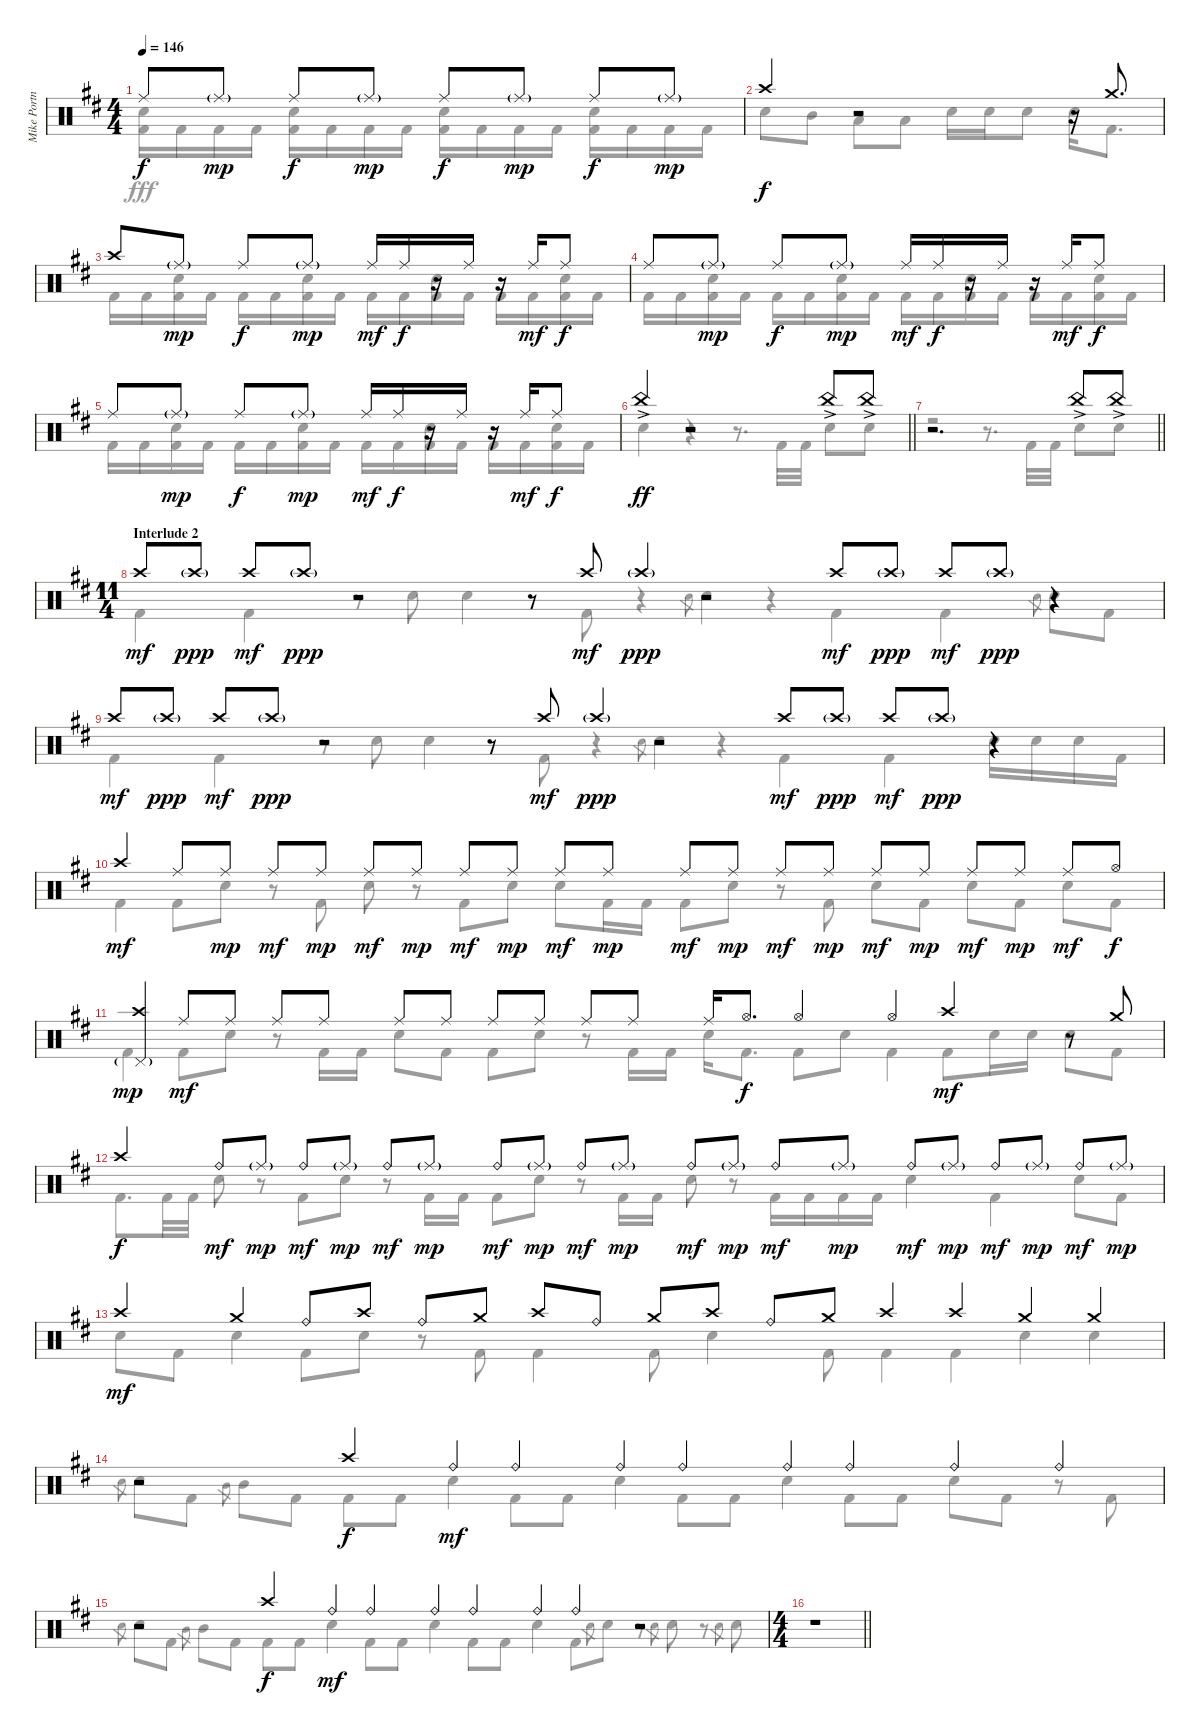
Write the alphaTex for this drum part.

\track ("Mike Portnoy Drums" "Mike Portn") {instrument percussion}
\staff {score}
\articulation defaults
\voice
\ts (4 4)
\tempo 146
\clef neutral
\ks bminor "Ride (middle)".8{dy f} "Ride (middle)"{g}.8{dy mp} "Ride (middle)".8{dy f} "Ride (middle)"{g}.8{dy mp} "Ride (middle)".8{dy f} "Ride (middle)"{g}.8{dy mp} "Ride (middle)".8{dy f} "Ride (middle)"{g}.8{dy mp}
|
"Crash high (hit)".4{dy f} r.2 r.16 "Crash medium (hit)".8{d} |
"Crash high (hit)".8 "Ride (middle)"{g}.8{dy mp} "Ride (middle)".8{dy f} "Ride (middle)"{g}.8{dy mp} "Ride (middle)".16{dy mf} "Ride (middle)".16{dy f} r.16 "Ride (middle)".16 r.16 "Ride (middle)".16{dy mf} "Ride (middle)".8{dy f} |
"Ride (middle)".8 "Ride (middle)"{g}.8{dy mp} "Ride (middle)".8{dy f} "Ride (middle)"{g}.8{dy mp} "Ride (middle)".16{dy mf} "Ride (middle)".16{dy f} r.16 "Ride (middle)".16 r.16 "Ride (middle)".16{dy mf} "Ride (middle)".8{dy f} |
"Ride (middle)".8 "Ride (middle)"{g}.8{dy mp} "Ride (middle)".8{dy f} "Ride (middle)"{g}.8{dy mp} "Ride (middle)".16{dy mf} "Ride (middle)".16{dy f} r.16 "Ride (middle)".16 r.16 "Ride (middle)".16{dy mf} "Ride (middle)".8{dy f} |
\barLineRight lightlight "China (hit)"{ac}.4{dy ff}
r.2 "China (hit)"{ac}.8 "China (hit)"{ac}.8 |
\barLineRight lightlight
r.2{d} "China (hit)"{ac}.8 "China (hit)"{ac}.8 |
\ts (11 4)
\section ("" "Interlude 2")
"Crash high (hit)".8{dy mf} "Crash high (hit)"{g}.8{dy ppp} "Crash high (hit)".8{dy mf} "Crash high (hit)"{g}.8{dy ppp} r.2 r.8 "Crash high (hit)".8{dy mf} "Crash high (hit)"{g}.4{dy ppp} r.2 "Crash high (hit)".8{dy mf} "Crash high (hit)"{g}.8{dy ppp} "Crash high (hit)".8{dy mf} "Crash high (hit)"{g}.8{dy ppp} r.4 |
"Crash high (hit)".8{dy mf} "Crash high (hit)"{g}.8{dy ppp} "Crash high (hit)".8{dy mf} "Crash high (hit)"{g}.8{dy ppp} r.2 r.8 "Crash high (hit)".8{dy mf} "Crash high (hit)"{g}.4{dy ppp} r.2 "Crash high (hit)".8{dy mf} "Crash high (hit)"{g}.8{dy ppp} "Crash high (hit)".8{dy mf} "Crash high (hit)"{g}.8{dy ppp} r.4 |
"Crash high (hit)".4{dy mf} "Ride (middle)".8 "Ride (middle)".8{dy mp} "Ride (middle)".8{dy mf} "Ride (middle)".8{dy mp} "Ride (middle)".8{dy mf} "Ride (middle)".8{dy mp} "Ride (middle)".8{dy mf} "Ride (middle)".8{dy mp} "Ride (middle)".8{dy mf} "Ride (middle)".8{dy mp} "Ride (middle)".8{dy mf} "Ride (middle)".8{dy mp} "Ride (middle)".8{dy mf} "Ride (middle)".8{dy mp} "Ride (middle)".8{dy mf} "Ride (middle)".8{dy mp} "Ride (middle)".8{dy mf} "Ride (middle)".8{dy mp} "Ride (middle)".8{dy mf} "Hi-Hat (open)".8{dy f} |
("Crash high (hit)" "Pedal Hi-Hat (hit)"{g}).4{dy mp} "Ride (middle)".8{dy mf} "Ride (middle)".8 "Ride (middle)".8 "Ride (middle)".8 "Ride (middle)".8 "Ride (middle)".8 "Ride (middle)".8 "Ride (middle)".8 "Ride (middle)".8 "Ride (middle)".8 "Ride (middle)".16 "Hi-Hat (open)".8{d dy f} "Hi-Hat (open)".4 "Hi-Hat (open)".4 "Crash high (hit)".4{dy mf} r.8 "Crash medium (hit)".8 |
"Crash high (hit)".4{dy f} "Ride (bell)".8{dy mf} "Ride (middle)"{g}.8{dy mp} "Ride (bell)".8{dy mf} "Ride (middle)"{g}.8{dy mp} "Ride (bell)".8{dy mf} "Ride (middle)"{g}.8{dy mp} "Ride (bell)".8{dy mf} "Ride (middle)"{g}.8{dy mp} "Ride (bell)".8{dy mf} "Ride (middle)"{g}.8{dy mp} "Ride (bell)".8{dy mf} "Ride (middle)"{g}.8{dy mp} "Ride (bell)".8{dy mf} "Ride (middle)"{g}.8{dy mp} "Ride (bell)".8{dy mf} "Ride (middle)"{g}.8{dy mp} "Ride (bell)".8{dy mf} "Ride (middle)"{g}.8{dy mp} "Ride (bell)".8{dy mf} "Ride (middle)"{g}.8{dy mp} |
"Crash high (hit)".4{dy mf} "Crash medium (hit)".4 "Ride (bell)".8 "Crash high (hit)".8 "Ride (bell)".8 "Crash medium (hit)".8 "Crash high (hit)".8 "Ride (bell)".8 "Crash medium (hit)".8 "Crash high (hit)".8 "Ride (bell)".8 "Crash medium (hit)".8 "Crash high (hit)".4 "Crash high (hit)".4 "Crash medium (hit)".4 "Crash medium (hit)".4 |
r.2 "Crash high (hit)".4{dy f} "Ride (bell)".4{dy mf} "Ride (bell)".4 "Ride (bell)".4 "Ride (bell)".4 "Ride (bell)".4 "Ride (bell)".4 "Ride (bell)".4 "Ride (bell)".4 |
r.2 "Crash high (hit)".4{dy f} "Ride (bell)".4{dy mf} "Ride (bell)".4 "Ride (bell)".4 "Ride (bell)".4 "Ride (bell)".4 "Ride (bell)".4 r.2 |
\ts (4 4)
\barLineRight lightlight
r.1
\voice
\clef neutral
\ottava regular
\simile none
\ks bminor
("Snare (hit) 2" "Kick (hit) 2").16{dy fff} "Kick (hit) 2".16 "Kick (hit) 2".16 "Kick (hit) 2".16 ("Snare (hit) 2" "Kick (hit) 2").16 "Kick (hit) 2".16 "Kick (hit) 2".16 "Kick (hit) 2".16 ("Snare (hit) 2" "Kick (hit) 2").16 "Kick (hit) 2".16 "Kick (hit) 2".16 "Kick (hit) 2".16 ("Snare (hit) 2" "Kick (hit) 2").16 "Kick (hit) 2".16 "Kick (hit) 2".16 "Kick (hit) 2".16 |
"Snare (hit) 2".8 "Mid Tom (hit)".8 "Low Tom (hit)".8 "Low Tom (hit)".8 "Snare (hit) 2".16 "Snare (hit) 2".16 "Snare (hit) 2".8 "Snare (hit) 2".16 "Kick (hit) 2".8{d} |
"Kick (hit) 2".16 "Kick (hit) 2".16 ("Snare (hit) 2" "Kick (hit) 2").16 "Kick (hit) 2".16 "Kick (hit) 2".16 "Kick (hit) 2".16 ("Snare (hit) 2" "Kick (hit) 2").16 "Kick (hit) 2".16 "Kick (hit) 2".16 "Kick (hit) 2".16 ("Snare (hit) 2" "Kick (hit) 2").16 "Kick (hit) 2".16 "Kick (hit) 2".16 "Kick (hit) 2".16 ("Snare (hit) 2" "Kick (hit) 2").16 "Kick (hit) 2".16 |
"Kick (hit) 2".16 "Kick (hit) 2".16 ("Snare (hit) 2" "Kick (hit) 2").16 "Kick (hit) 2".16 "Kick (hit) 2".16 "Kick (hit) 2".16 ("Snare (hit) 2" "Kick (hit) 2").16 "Kick (hit) 2".16 "Kick (hit) 2".16 "Kick (hit) 2".16 ("Snare (hit) 2" "Kick (hit) 2").16 "Kick (hit) 2".16 "Kick (hit) 2".16 "Kick (hit) 2".16 ("Snare (hit) 2" "Kick (hit) 2").16 "Kick (hit) 2".16 |
"Kick (hit) 2".16 "Kick (hit) 2".16 ("Snare (hit) 2" "Kick (hit) 2").16 "Kick (hit) 2".16 "Kick (hit) 2".16 "Kick (hit) 2".16 ("Snare (hit) 2" "Kick (hit) 2").16 "Kick (hit) 2".16 "Kick (hit) 2".16 "Kick (hit) 2".16 ("Snare (hit) 2" "Kick (hit) 2").16 "Kick (hit) 2".16 "Kick (hit) 2".16 "Kick (hit) 2".16 ("Snare (hit) 2" "Kick (hit) 2").16 "Kick (hit) 2".16 |
\barLineRight lightlight "Snare (hit) 2".4
r.4 r.8{d} "Kick (hit) 2".32 "Kick (hit) 2".32 "Snare (hit) 2".8 "Snare (hit) 2".8 |
\barLineRight lightlight
r.2 r.8{d} "Kick (hit) 2".32 "Kick (hit) 2".32 "Snare (hit) 2".8 "Snare (hit) 2".8 |
"Kick (hit) 2".4 "Kick (hit) 2".4 r.8 "Snare (hit) 2".8 "Snare (hit) 2".4 r.8 "Kick (hit) 2".8 r.4 "Snare (hit) 2".8{gr} "Snare (hit) 2".4 r.4 "Kick (hit) 2".4 "Kick (hit) 2".4 "Snare (hit) 2".8{gr} "Snare (hit) 2".8 "Kick (hit) 2".8 |
"Kick (hit) 2".4 "Kick (hit) 2".4 r.8 "Snare (hit) 2".8 "Snare (hit) 2".4 r.8 "Kick (hit) 2".8 r.4 "Snare (hit) 2".8{gr} "Snare (hit) 2".4 r.4 "Kick (hit) 2".4 "Kick (hit) 2".4 "Snare (hit) 2".16 "Snare (hit) 2".16 "Snare (hit) 2".16 "Kick (hit) 2".16 |
"Kick (hit) 2".4 "Kick (hit) 2".8 "Snare (hit) 2".8 r.8 "Kick (hit) 2".8 "Snare (hit) 2".8 r.8 "Kick (hit) 2".8 "Snare (hit) 2".8 "Snare (hit) 2".8 "Kick (hit) 2".16 "Kick (hit) 2".16 "Kick (hit) 2".8 "Snare (hit) 2".8 r.8 "Kick (hit) 2".8 "Snare (hit) 2".8 "Kick (hit) 2".8 "Snare (hit) 2".8 "Kick (hit) 2".8 "Snare (hit) 2".8 "Kick (hit) 2".8 |
"Kick (hit) 2".4 "Kick (hit) 2".8 "Snare (hit) 2".8 r.8 "Kick (hit) 2".16 "Kick (hit) 2".16 "Snare (hit) 2".8 "Kick (hit) 2".8 "Kick (hit) 2".8 "Snare (hit) 2".8 r.8 "Kick (hit) 2".16 "Kick (hit) 2".16 "Snare (hit) 2".16 "Kick (hit) 2".8{d} "Kick (hit) 2".8 "Snare (hit) 2".8 "Kick (hit) 2".4 "Kick (hit) 2".8 "Snare (hit) 2".16 "Snare (hit) 2".16 "Snare (hit) 2".8 "Kick (hit) 2".8 |
"Kick (hit) 2".8{d} "Kick (hit) 2".32 "Kick (hit) 2".32 "Snare (hit) 2".8 r.8 "Kick (hit) 2".8 "Snare (hit) 2".8 r.8 "Kick (hit) 2".16 "Kick (hit) 2".16 "Kick (hit) 2".8 "Snare (hit) 2".8 r.8 "Kick (hit) 2".16 "Kick (hit) 2".16 "Snare (hit) 2".8 r.8 "Kick (hit) 2".16 "Kick (hit) 2".16 "Kick (hit) 2".16 "Kick (hit) 2".16 "Snare (hit) 2".4 "Kick (hit) 2".4 "Snare (hit) 2".8 "Kick (hit) 2".8 |
"Snare (hit) 2".8 "Kick (hit) 2".8 "Snare (hit) 2".4 "Kick (hit) 2".8 "Snare (hit) 2".8 r.8 "Kick (hit) 2".8 "Kick (hit) 2".4 "Kick (hit) 2".8 "Snare (hit) 2".4 "Kick (hit) 2".8 "Kick (hit) 2".4 "Kick (hit) 2".4 "Snare (hit) 2".4 "Snare (hit) 2".4 |
"Snare (hit) 2".8{gr} "Snare (hit) 2".8 "Kick (hit) 2".8 "Mid Tom (hit)".8{gr} "Mid Tom (hit)".8 "Kick (hit) 2".8 "Kick (hit) 2".8 "Kick (hit) 2".8 "Snare (hit) 2".4 "Kick (hit) 2".8 "Kick (hit) 2".8 "Snare (hit) 2".4 "Kick (hit) 2".8 "Kick (hit) 2".8 "Snare (hit) 2".4 "Kick (hit) 2".8 "Kick (hit) 2".8 "Snare (hit) 2".8 "Kick (hit) 2".8 r.8 "Kick (hit) 2".8 |
"Snare (hit) 2".8{gr} "Snare (hit) 2".8 "Kick (hit) 2".8 "Mid Tom (hit)".8{gr} "Mid Tom (hit)".8 "Kick (hit) 2".8 "Kick (hit) 2".8 "Kick (hit) 2".8 "Snare (hit) 2".4 "Kick (hit) 2".8 "Kick (hit) 2".8 "Snare (hit) 2".4 "Kick (hit) 2".8 "Kick (hit) 2".8 "Snare (hit) 2".4 "Kick (hit) 2".8 "Snare (hit) 2".8{gr} "Snare (hit) 2".8 r.8 "Snare (hit) 2".8{gr} "Snare (hit) 2".8 r.8 "Snare (hit) 2".8{gr} "Snare (hit) 2".8 |
\barLineRight lightlight
r.1
